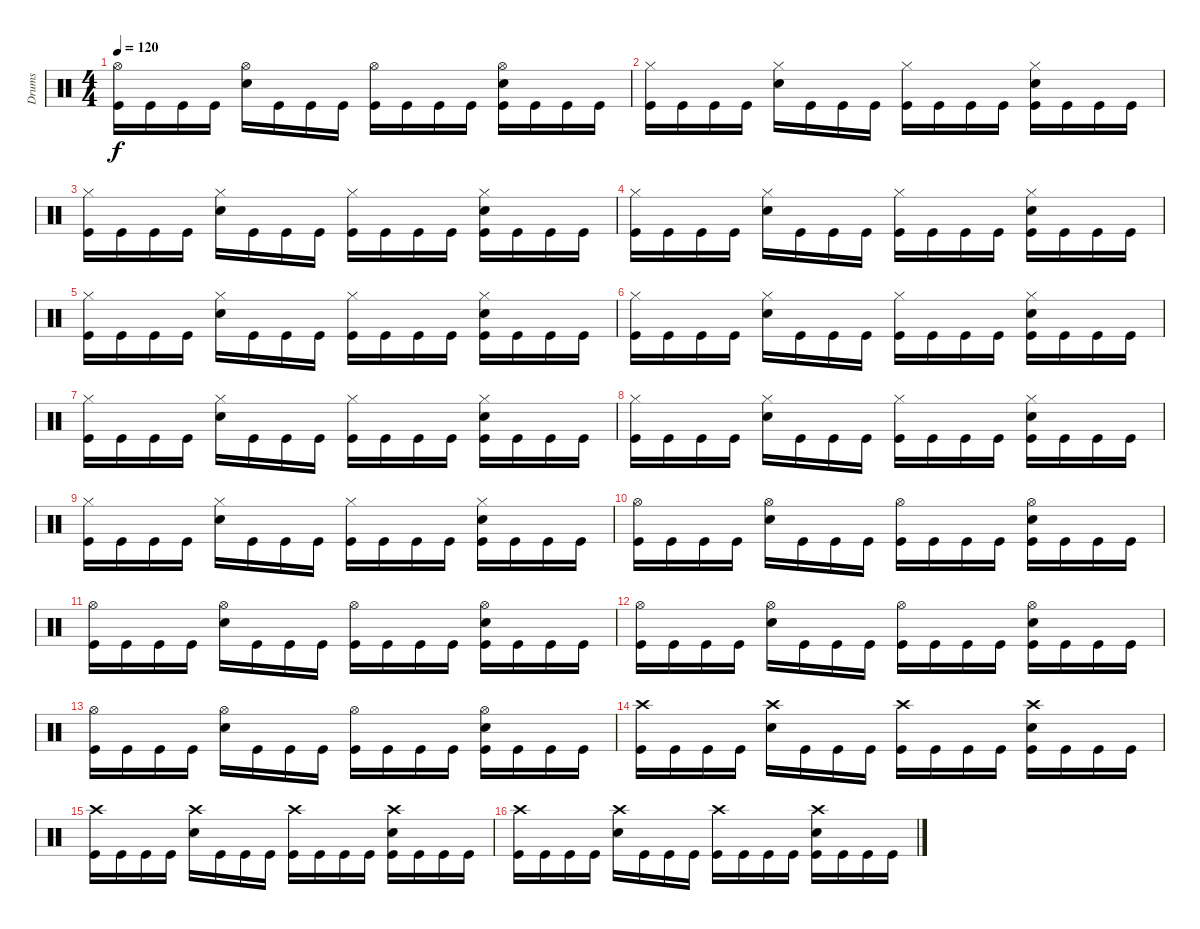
\track ("Drums" "Drums") {instrument percussion}
\staff {score}
\articulation defaults
\ts (4 4)
\tempo 120
\clef neutral
\ks c
("Hi-Hat (open)" "Kick (hit)").16{dy f} "Kick (hit)".16 "Kick (hit)".16 "Kick (hit)".16 ("Hi-Hat (open)" "Snare (hit) 2").16 "Kick (hit)".16 "Kick (hit)".16 "Kick (hit)".16 ("Hi-Hat (open)" "Kick (hit)").16 "Kick (hit)".16 "Kick (hit)".16 "Kick (hit)".16 ("Hi-Hat (open)" "Snare (hit) 2" "Kick (hit)").16 "Kick (hit)".16 "Kick (hit)".16 "Kick (hit)".16 |
("Hi-Hat (closed)" "Kick (hit)").16 "Kick (hit)".16 "Kick (hit)".16 "Kick (hit)".16 ("Hi-Hat (closed)" "Snare (hit) 2").16 "Kick (hit)".16 "Kick (hit)".16 "Kick (hit)".16 ("Hi-Hat (closed)" "Kick (hit)").16 "Kick (hit)".16 "Kick (hit)".16 "Kick (hit)".16 ("Hi-Hat (closed)" "Snare (hit) 2" "Kick (hit)").16 "Kick (hit)".16 "Kick (hit)".16 "Kick (hit)".16 |
("Hi-Hat (closed)" "Kick (hit)").16 "Kick (hit)".16 "Kick (hit)".16 "Kick (hit)".16 ("Hi-Hat (closed)" "Snare (hit) 2").16 "Kick (hit)".16 "Kick (hit)".16 "Kick (hit)".16 ("Hi-Hat (closed)" "Kick (hit)").16 "Kick (hit)".16 "Kick (hit)".16 "Kick (hit)".16 ("Hi-Hat (closed)" "Snare (hit) 2" "Kick (hit)").16 "Kick (hit)".16 "Kick (hit)".16 "Kick (hit)".16 |
("Hi-Hat (closed)" "Kick (hit)").16 "Kick (hit)".16 "Kick (hit)".16 "Kick (hit)".16 ("Hi-Hat (closed)" "Snare (hit) 2").16 "Kick (hit)".16 "Kick (hit)".16 "Kick (hit)".16 ("Hi-Hat (closed)" "Kick (hit)").16 "Kick (hit)".16 "Kick (hit)".16 "Kick (hit)".16 ("Hi-Hat (closed)" "Snare (hit) 2" "Kick (hit)").16 "Kick (hit)".16 "Kick (hit)".16 "Kick (hit)".16 |
("Hi-Hat (closed)" "Kick (hit)").16 "Kick (hit)".16 "Kick (hit)".16 "Kick (hit)".16 ("Hi-Hat (closed)" "Snare (hit) 2").16 "Kick (hit)".16 "Kick (hit)".16 "Kick (hit)".16 ("Hi-Hat (closed)" "Kick (hit)").16 "Kick (hit)".16 "Kick (hit)".16 "Kick (hit)".16 ("Hi-Hat (closed)" "Snare (hit) 2" "Kick (hit)").16 "Kick (hit)".16 "Kick (hit)".16 "Kick (hit)".16 |
("Hi-Hat (closed)" "Kick (hit)").16 "Kick (hit)".16 "Kick (hit)".16 "Kick (hit)".16 ("Hi-Hat (closed)" "Snare (hit) 2").16 "Kick (hit)".16 "Kick (hit)".16 "Kick (hit)".16 ("Hi-Hat (closed)" "Kick (hit)").16 "Kick (hit)".16 "Kick (hit)".16 "Kick (hit)".16 ("Hi-Hat (closed)" "Snare (hit) 2" "Kick (hit)").16 "Kick (hit)".16 "Kick (hit)".16 "Kick (hit)".16 |
("Hi-Hat (closed)" "Kick (hit)").16 "Kick (hit)".16 "Kick (hit)".16 "Kick (hit)".16 ("Hi-Hat (closed)" "Snare (hit) 2").16 "Kick (hit)".16 "Kick (hit)".16 "Kick (hit)".16 ("Hi-Hat (closed)" "Kick (hit)").16 "Kick (hit)".16 "Kick (hit)".16 "Kick (hit)".16 ("Hi-Hat (closed)" "Snare (hit) 2" "Kick (hit)").16 "Kick (hit)".16 "Kick (hit)".16 "Kick (hit)".16 |
("Hi-Hat (closed)" "Kick (hit)").16 "Kick (hit)".16 "Kick (hit)".16 "Kick (hit)".16 ("Hi-Hat (closed)" "Snare (hit) 2").16 "Kick (hit)".16 "Kick (hit)".16 "Kick (hit)".16 ("Hi-Hat (closed)" "Kick (hit)").16 "Kick (hit)".16 "Kick (hit)".16 "Kick (hit)".16 ("Hi-Hat (closed)" "Snare (hit) 2" "Kick (hit)").16 "Kick (hit)".16 "Kick (hit)".16 "Kick (hit)".16 |
("Hi-Hat (closed)" "Kick (hit)").16 "Kick (hit)".16 "Kick (hit)".16 "Kick (hit)".16 ("Hi-Hat (closed)" "Snare (hit) 2").16 "Kick (hit)".16 "Kick (hit)".16 "Kick (hit)".16 ("Hi-Hat (closed)" "Kick (hit)").16 "Kick (hit)".16 "Kick (hit)".16 "Kick (hit)".16 ("Hi-Hat (closed)" "Snare (hit) 2" "Kick (hit)").16 "Kick (hit)".16 "Kick (hit)".16 "Kick (hit)".16 |
("Hi-Hat (open)" "Kick (hit)").16 "Kick (hit)".16 "Kick (hit)".16 "Kick (hit)".16 ("Hi-Hat (open)" "Snare (hit) 2").16 "Kick (hit)".16 "Kick (hit)".16 "Kick (hit)".16 ("Hi-Hat (open)" "Kick (hit)").16 "Kick (hit)".16 "Kick (hit)".16 "Kick (hit)".16 ("Hi-Hat (open)" "Snare (hit) 2" "Kick (hit)").16 "Kick (hit)".16 "Kick (hit)".16 "Kick (hit)".16 |
("Hi-Hat (open)" "Kick (hit)").16 "Kick (hit)".16 "Kick (hit)".16 "Kick (hit)".16 ("Hi-Hat (open)" "Snare (hit) 2").16 "Kick (hit)".16 "Kick (hit)".16 "Kick (hit)".16 ("Hi-Hat (open)" "Kick (hit)").16 "Kick (hit)".16 "Kick (hit)".16 "Kick (hit)".16 ("Hi-Hat (open)" "Snare (hit) 2" "Kick (hit)").16 "Kick (hit)".16 "Kick (hit)".16 "Kick (hit)".16 |
("Hi-Hat (open)" "Kick (hit)").16 "Kick (hit)".16 "Kick (hit)".16 "Kick (hit)".16 ("Hi-Hat (open)" "Snare (hit) 2").16 "Kick (hit)".16 "Kick (hit)".16 "Kick (hit)".16 ("Hi-Hat (open)" "Kick (hit)").16 "Kick (hit)".16 "Kick (hit)".16 "Kick (hit)".16 ("Hi-Hat (open)" "Snare (hit) 2" "Kick (hit)").16 "Kick (hit)".16 "Kick (hit)".16 "Kick (hit)".16 |
("Hi-Hat (open)" "Kick (hit)").16 "Kick (hit)".16 "Kick (hit)".16 "Kick (hit)".16 ("Hi-Hat (open)" "Snare (hit) 2").16 "Kick (hit)".16 "Kick (hit)".16 "Kick (hit)".16 ("Hi-Hat (open)" "Kick (hit)").16 "Kick (hit)".16 "Kick (hit)".16 "Kick (hit)".16 ("Hi-Hat (open)" "Snare (hit) 2" "Kick (hit)").16 "Kick (hit)".16 "Kick (hit)".16 "Kick (hit)".16 |
("Crash high (hit)" "Kick (hit)").16 "Kick (hit)".16 "Kick (hit)".16 "Kick (hit)".16 ("Crash high (hit)" "Snare (hit) 2").16 "Kick (hit)".16 "Kick (hit)".16 "Kick (hit)".16 ("Crash high (hit)" "Kick (hit)").16 "Kick (hit)".16 "Kick (hit)".16 "Kick (hit)".16 ("Crash high (hit)" "Snare (hit) 2" "Kick (hit)").16 "Kick (hit)".16 "Kick (hit)".16 "Kick (hit)".16 |
("Crash high (hit)" "Kick (hit)").16 "Kick (hit)".16 "Kick (hit)".16 "Kick (hit)".16 ("Crash high (hit)" "Snare (hit) 2").16 "Kick (hit)".16 "Kick (hit)".16 "Kick (hit)".16 ("Crash high (hit)" "Kick (hit)").16 "Kick (hit)".16 "Kick (hit)".16 "Kick (hit)".16 ("Crash high (hit)" "Snare (hit) 2" "Kick (hit)").16 "Kick (hit)".16 "Kick (hit)".16 "Kick (hit)".16 |
("Crash high (hit)" "Kick (hit)").16 "Kick (hit)".16 "Kick (hit)".16 "Kick (hit)".16 ("Crash high (hit)" "Snare (hit) 2").16 "Kick (hit)".16 "Kick (hit)".16 "Kick (hit)".16 ("Crash high (hit)" "Kick (hit)").16 "Kick (hit)".16 "Kick (hit)".16 "Kick (hit)".16 ("Crash high (hit)" "Snare (hit) 2" "Kick (hit)").16 "Kick (hit)".16 "Kick (hit)".16 "Kick (hit)".16
